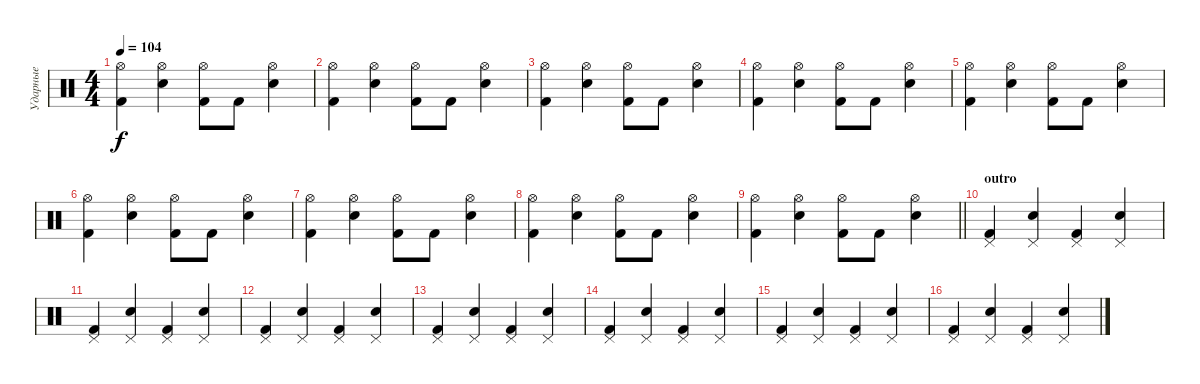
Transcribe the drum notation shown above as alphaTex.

\track ("Ударные" "Ударные") {instrument percussion}
\staff {score}
\articulation defaults
\ts (4 4)
\tempo 104
\clef neutral
\ks c
("Hi-Hat (open)" "Kick (hit) 2").4{dy f} ("Hi-Hat (open)" "Electric Snare (hit)").4 ("Hi-Hat (open)" "Kick (hit) 2").8 "Kick (hit) 2".8 ("Hi-Hat (open)" "Electric Snare (hit)").4 |
("Hi-Hat (open)" "Kick (hit) 2").4 ("Hi-Hat (open)" "Electric Snare (hit)").4 ("Hi-Hat (open)" "Kick (hit) 2").8 "Kick (hit) 2".8 ("Hi-Hat (open)" "Electric Snare (hit)").4 |
("Hi-Hat (open)" "Kick (hit) 2").4 ("Hi-Hat (open)" "Electric Snare (hit)").4 ("Hi-Hat (open)" "Kick (hit) 2").8 "Kick (hit) 2".8 ("Hi-Hat (open)" "Electric Snare (hit)").4 |
("Hi-Hat (open)" "Kick (hit) 2").4 ("Hi-Hat (open)" "Electric Snare (hit)").4 ("Hi-Hat (open)" "Kick (hit) 2").8 "Kick (hit) 2".8 ("Hi-Hat (open)" "Electric Snare (hit)").4 |
("Hi-Hat (open)" "Kick (hit) 2").4 ("Hi-Hat (open)" "Electric Snare (hit)").4 ("Hi-Hat (open)" "Kick (hit) 2").8 "Kick (hit) 2".8 ("Hi-Hat (open)" "Electric Snare (hit)").4 |
("Hi-Hat (open)" "Kick (hit) 2").4 ("Hi-Hat (open)" "Electric Snare (hit)").4 ("Hi-Hat (open)" "Kick (hit) 2").8 "Kick (hit) 2".8 ("Hi-Hat (open)" "Electric Snare (hit)").4 |
("Hi-Hat (open)" "Kick (hit) 2").4 ("Hi-Hat (open)" "Electric Snare (hit)").4 ("Hi-Hat (open)" "Kick (hit) 2").8 "Kick (hit) 2".8 ("Hi-Hat (open)" "Electric Snare (hit)").4 |
("Hi-Hat (open)" "Kick (hit) 2").4 ("Hi-Hat (open)" "Electric Snare (hit)").4 ("Hi-Hat (open)" "Kick (hit) 2").8 "Kick (hit) 2".8 ("Hi-Hat (open)" "Electric Snare (hit)").4 |
\barLineRight lightlight
("Hi-Hat (open)" "Kick (hit) 2").4 ("Hi-Hat (open)" "Electric Snare (hit)").4 ("Hi-Hat (open)" "Kick (hit) 2").8 "Kick (hit) 2".8 ("Hi-Hat (open)" "Electric Snare (hit)").4 |
\section ("" "outro")
("Pedal Hi-Hat (hit)" "Kick (hit) 2").4 ("Pedal Hi-Hat (hit)" "Electric Snare (hit)").4 ("Pedal Hi-Hat (hit)" "Kick (hit) 2").4 ("Pedal Hi-Hat (hit)" "Electric Snare (hit)").4 |
("Pedal Hi-Hat (hit)" "Kick (hit) 2").4 ("Pedal Hi-Hat (hit)" "Electric Snare (hit)").4 ("Pedal Hi-Hat (hit)" "Kick (hit) 2").4 ("Pedal Hi-Hat (hit)" "Electric Snare (hit)").4 |
("Pedal Hi-Hat (hit)" "Kick (hit) 2").4 ("Pedal Hi-Hat (hit)" "Electric Snare (hit)").4 ("Pedal Hi-Hat (hit)" "Kick (hit) 2").4 ("Pedal Hi-Hat (hit)" "Electric Snare (hit)").4 |
("Pedal Hi-Hat (hit)" "Kick (hit) 2").4 ("Pedal Hi-Hat (hit)" "Electric Snare (hit)").4 ("Pedal Hi-Hat (hit)" "Kick (hit) 2").4 ("Pedal Hi-Hat (hit)" "Electric Snare (hit)").4 |
("Pedal Hi-Hat (hit)" "Kick (hit) 2").4 ("Pedal Hi-Hat (hit)" "Electric Snare (hit)").4 ("Pedal Hi-Hat (hit)" "Kick (hit) 2").4 ("Pedal Hi-Hat (hit)" "Electric Snare (hit)").4 |
("Pedal Hi-Hat (hit)" "Kick (hit) 2").4 ("Pedal Hi-Hat (hit)" "Electric Snare (hit)").4 ("Pedal Hi-Hat (hit)" "Kick (hit) 2").4 ("Pedal Hi-Hat (hit)" "Electric Snare (hit)").4 |
("Pedal Hi-Hat (hit)" "Kick (hit) 2").4 ("Pedal Hi-Hat (hit)" "Electric Snare (hit)").4 ("Pedal Hi-Hat (hit)" "Kick (hit) 2").4 ("Pedal Hi-Hat (hit)" "Electric Snare (hit)").4
